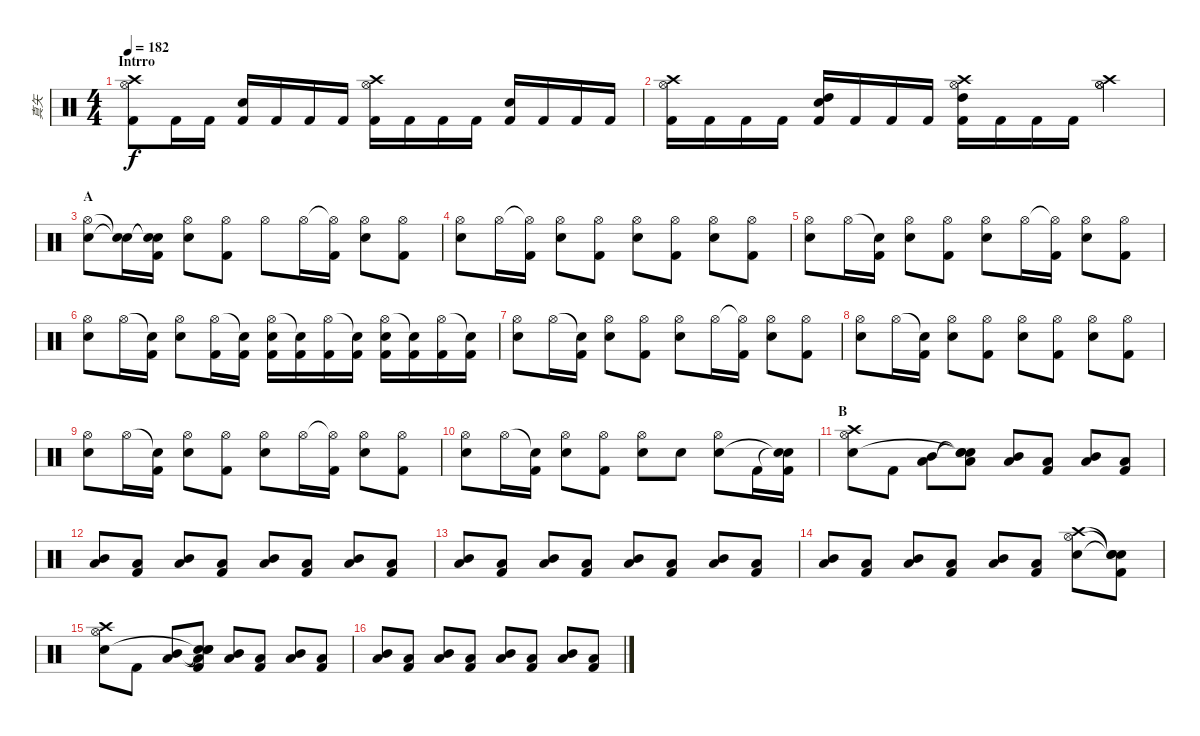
\track ("真矢" "真矢") {instrument percussion}
\staff {score}
\articulation defaults
\ts (4 4)
\section ("" "Intrro")
\tempo 182
\clef neutral
\ks c
("Crash high (hit)" "Hi-Hat (open)" "Kick (hit) 2").8{dy f} "Kick (hit) 2".16 "Kick (hit) 2".16 ("Electric Snare (hit)" "Kick (hit) 2").16 "Kick (hit) 2".16 "Kick (hit) 2".16 "Kick (hit) 2".16 ("Crash high (hit)" "Hi-Hat (open)" "Kick (hit) 2").16 "Kick (hit) 2".16 "Kick (hit) 2".16 "Kick (hit) 2".16 ("Electric Snare (hit)" "Kick (hit) 2").16 "Kick (hit) 2".16 "Kick (hit) 2".16 "Kick (hit) 2".16 |
("Crash high (hit)" "Hi-Hat (open)" "Kick (hit) 2").16 "Kick (hit) 2".16 "Kick (hit) 2".16 "Kick (hit) 2".16 ("High Tom (hit)" "Electric Snare (hit)" "Kick (hit) 2").16 "Kick (hit) 2".16 "Kick (hit) 2".16 "Kick (hit) 2".16 ("Crash high (hit)" "Hi-Hat (open)" "High Tom (hit)" "Kick (hit) 2").16 "Kick (hit) 2".16 "Kick (hit) 2".16 "Kick (hit) 2".16 ("Crash high (hit)" "Hi-Hat (open)" "Hi-Hat (open)").4 |
\section ("" "A")
("Hi-Hat (open)" "Electric Snare (hit)").8 ("Snare (hit)"{t} "Snare (hit)"{t}).16 ("Snare (hit)"{t} "Snare (hit)"{t} "Kick (hit) 2").16 ("Hi-Hat (open)" "Electric Snare (hit)").8 ("Hi-Hat (open)" "Kick (hit) 2").8 "Hi-Hat (open)".8 "Hi-Hat (open)".16 ("Hi-Hat (open)"{t} "Kick (hit) 2").16 ("Hi-Hat (open)" "Electric Snare (hit)").8 ("Hi-Hat (open)" "Kick (hit) 2").8 |
("Hi-Hat (open)" "Electric Snare (hit)").8 "Hi-Hat (open)".16 ("Hi-Hat (open)"{t} "Kick (hit) 2").16 ("Hi-Hat (open)" "Electric Snare (hit)").8 ("Hi-Hat (open)" "Kick (hit) 2").8 ("Hi-Hat (open)" "Electric Snare (hit)").8 ("Hi-Hat (open)" "Kick (hit) 2").8 ("Hi-Hat (open)" "Electric Snare (hit)").8 ("Hi-Hat (open)" "Kick (hit) 2").8 |
("Hi-Hat (open)" "Electric Snare (hit)").8 "Hi-Hat (open)".16 ("Snare (hit)"{t} "Kick (hit) 2").16 ("Hi-Hat (open)" "Electric Snare (hit)").8 ("Hi-Hat (open)" "Kick (hit) 2").8 ("Hi-Hat (open)" "Electric Snare (hit)").8 "Hi-Hat (open)".16 ("Hi-Hat (open)"{t} "Kick (hit) 2").16 ("Hi-Hat (open)" "Electric Snare (hit)").8 ("Hi-Hat (open)" "Kick (hit) 2").8 |
("Hi-Hat (open)" "Electric Snare (hit)").8 "Hi-Hat (open)".16 ("Snare (hit)"{t} "Kick (hit) 2").16 ("Hi-Hat (open)" "Electric Snare (hit)").8 ("Hi-Hat (open)" "Kick (hit) 2").16 ("Snare (hit)"{t} "Kick (hit) 2").16 ("Hi-Hat (open)" "Electric Snare (hit)" "Kick (hit) 2").16 ("Snare (hit)"{t} "Kick (hit) 2").16 ("Hi-Hat (open)" "Kick (hit) 2").16 ("Snare (hit)"{t} "Kick (hit) 2").16 ("Hi-Hat (open)" "Electric Snare (hit)" "Kick (hit) 2").16 ("Snare (hit)"{t} "Kick (hit) 2").16 ("Hi-Hat (open)" "Kick (hit) 2").16 ("Snare (hit)"{t} "Kick (hit) 2").16 |
("Hi-Hat (open)" "Electric Snare (hit)").8 "Hi-Hat (open)".16 ("Snare (hit)"{t} "Kick (hit) 2").16 ("Hi-Hat (open)" "Electric Snare (hit)").8 ("Hi-Hat (open)" "Kick (hit) 2").8 ("Hi-Hat (open)" "Electric Snare (hit)").8 "Hi-Hat (open)".16 ("Hi-Hat (open)"{t} "Kick (hit) 2").16 ("Hi-Hat (open)" "Electric Snare (hit)").8 ("Hi-Hat (open)" "Kick (hit) 2").8 |
("Hi-Hat (open)" "Electric Snare (hit)").8 "Hi-Hat (open)".16 ("Snare (hit)"{t} "Kick (hit) 2").16 ("Hi-Hat (open)" "Electric Snare (hit)").8 ("Hi-Hat (open)" "Kick (hit) 2").8 ("Hi-Hat (open)" "Electric Snare (hit)").8 ("Hi-Hat (open)" "Kick (hit) 2").8 ("Hi-Hat (open)" "Electric Snare (hit)").8 ("Hi-Hat (open)" "Kick (hit) 2").8 |
("Hi-Hat (open)" "Electric Snare (hit)").8 "Hi-Hat (open)".16 ("Snare (hit)"{t} "Kick (hit) 2").16 ("Hi-Hat (open)" "Electric Snare (hit)").8 ("Hi-Hat (open)" "Kick (hit) 2").8 ("Hi-Hat (open)" "Electric Snare (hit)").8 "Hi-Hat (open)".16 ("Hi-Hat (open)"{t} "Kick (hit) 2").16 ("Hi-Hat (open)" "Electric Snare (hit)").8 ("Hi-Hat (open)" "Kick (hit) 2").8 |
("Hi-Hat (open)" "Electric Snare (hit)").8 "Hi-Hat (open)".16 ("Snare (hit)"{t} "Kick (hit) 2").16 ("Hi-Hat (open)" "Electric Snare (hit)").8 ("Hi-Hat (open)" "Kick (hit) 2").8 ("Hi-Hat (open)" "Electric Snare (hit)").8 "Electric Snare (hit)".8 ("Hi-Hat (open)" "Electric Snare (hit)").8 "Kick (hit) 2".16 ("Snare (hit)"{t} "Snare (hit)"{t} "Kick (hit) 2").16 |
\section ("" "B")
("Crash high (hit)" "Hi-Hat (open)" "Electric Snare (hit)").8 "Kick (hit) 2".8 ("Mid Tom (hit)" "Low Tom (hit)").8 ("Snare (hit)"{t} "Snare (hit)"{t} "Snare (hit)"{t} "Low Tom (hit)").8 ("Mid Tom (hit)" "Low Tom (hit)").8 ("Low Tom (hit)" "Kick (hit) 2").8 ("Mid Tom (hit)" "Low Tom (hit)").8 ("Low Tom (hit)" "Kick (hit) 2").8 |
("Mid Tom (hit)" "Low Tom (hit)").8 ("Low Tom (hit)" "Kick (hit) 2").8 ("Mid Tom (hit)" "Low Tom (hit)").8 ("Low Tom (hit)" "Kick (hit) 2").8 ("Mid Tom (hit)" "Low Tom (hit)").8 ("Low Tom (hit)" "Kick (hit) 2").8 ("Mid Tom (hit)" "Low Tom (hit)").8 ("Low Tom (hit)" "Kick (hit) 2").8 |
("Mid Tom (hit)" "Low Tom (hit)").8 ("Low Tom (hit)" "Kick (hit) 2").8 ("Mid Tom (hit)" "Low Tom (hit)").8 ("Low Tom (hit)" "Kick (hit) 2").8 ("Mid Tom (hit)" "Low Tom (hit)").8 ("Low Tom (hit)" "Kick (hit) 2").8 ("Mid Tom (hit)" "Low Tom (hit)").8 ("Low Tom (hit)" "Kick (hit) 2").8 |
("Mid Tom (hit)" "Low Tom (hit)").8 ("Low Tom (hit)" "Kick (hit) 2").8 ("Mid Tom (hit)" "Low Tom (hit)").8 ("Low Tom (hit)" "Kick (hit) 2").8 ("Mid Tom (hit)" "Low Tom (hit)").8 ("Low Tom (hit)" "Kick (hit) 2").8 ("Crash high (hit)" "Hi-Hat (open)" "Electric Snare (hit)").8 ("Snare (hit)"{t} "Snare (hit)"{t} "Snare (hit)"{t} "Kick (hit) 2").8 |
("Crash high (hit)" "Hi-Hat (open)" "Electric Snare (hit)").8 "Kick (hit) 2".8 ("Mid Tom (hit)" "Low Tom (hit)").8 ("Snare (hit)"{t} "Snare (hit)"{t} "Snare (hit)"{t} "Low Tom (hit)" "Kick (hit) 2").8 ("Mid Tom (hit)" "Low Tom (hit)").8 ("Low Tom (hit)" "Kick (hit) 2").8 ("Mid Tom (hit)" "Low Tom (hit)").8 ("Low Tom (hit)" "Kick (hit) 2").8 |
("Mid Tom (hit)" "Low Tom (hit)").8 ("Low Tom (hit)" "Kick (hit) 2").8 ("Mid Tom (hit)" "Low Tom (hit)").8 ("Low Tom (hit)" "Kick (hit) 2").8 ("Mid Tom (hit)" "Low Tom (hit)").8 ("Low Tom (hit)" "Kick (hit) 2").8 ("Mid Tom (hit)" "Low Tom (hit)").8 ("Low Tom (hit)" "Kick (hit) 2").8
